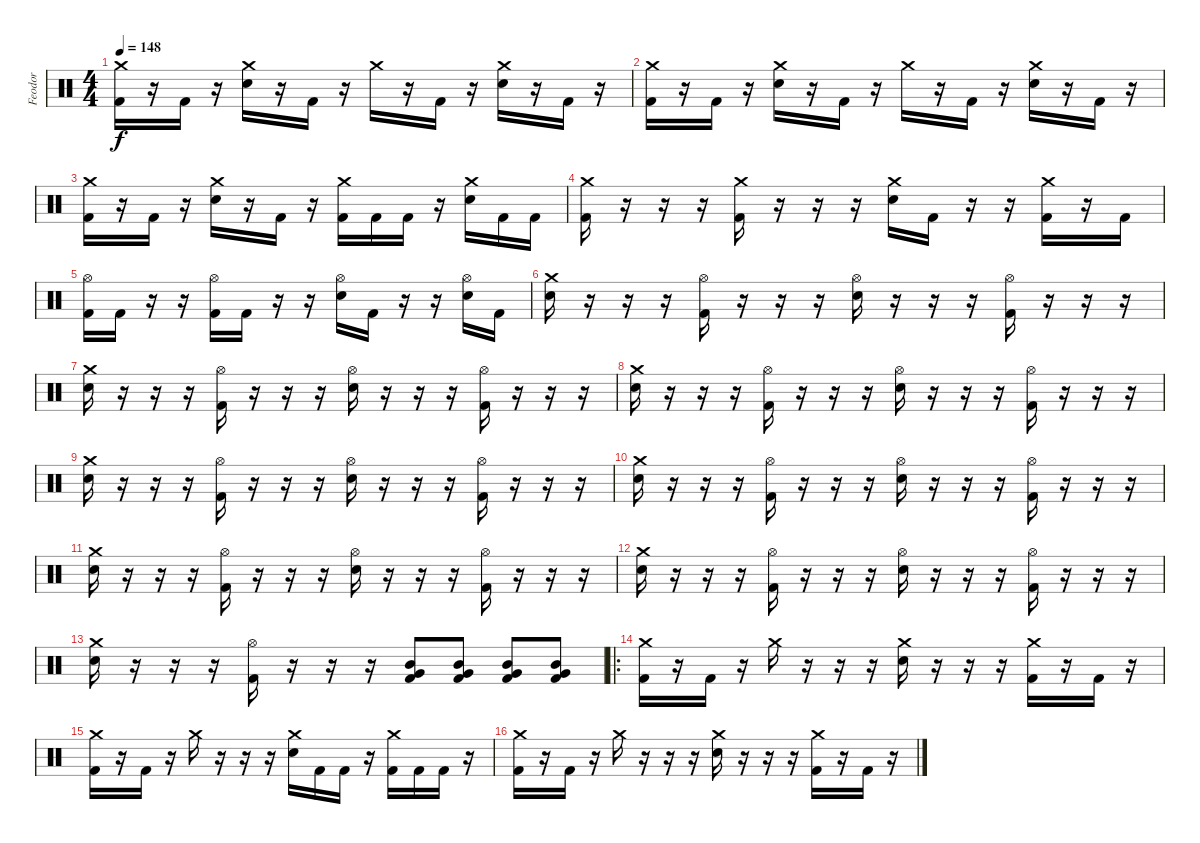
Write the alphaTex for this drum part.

\track ("Feodor" "Feodor") {instrument percussion}
\staff {score}
\articulation defaults
\ts (4 4)
\tempo 148
\clef neutral
\ks c
("Kick (hit) 2" "Crash medium (hit)").16{dy f} r.16 "Kick (hit) 2".16 r.16 ("Electric Snare (hit)" "Crash medium (hit)").16 r.16 "Kick (hit) 2".16 r.16 "Crash medium (hit)".16 r.16 "Kick (hit) 2".16 r.16 ("Electric Snare (hit)" "Crash medium (hit)").16 r.16 "Kick (hit) 2".16 r.16 |
("Kick (hit) 2" "Crash medium (hit)").16 r.16 "Kick (hit) 2".16 r.16 ("Electric Snare (hit)" "Crash medium (hit)").16 r.16 "Kick (hit) 2".16 r.16 "Crash medium (hit)".16 r.16 "Kick (hit) 2".16 r.16 ("Electric Snare (hit)" "Crash medium (hit)").16 r.16 "Kick (hit) 2".16 r.16 |
("Kick (hit) 2" "Crash medium (hit)").16 r.16 "Kick (hit) 2".16 r.16 ("Electric Snare (hit)" "Crash medium (hit)").16 r.16 "Kick (hit) 2".16 r.16 ("Kick (hit) 2" "Crash medium (hit)").16 "Kick (hit) 2".16 "Kick (hit) 2".16 r.16 ("Electric Snare (hit)" "Crash medium (hit)").16 "Kick (hit) 2".16 "Kick (hit) 2".16 |
("Kick (hit) 2" "Crash medium (hit)").16 r.16 r.16 r.16 ("Kick (hit) 2" "Crash medium (hit)").16 r.16 r.16 r.16 ("Electric Snare (hit)" "Crash medium (hit)").16 "Kick (hit) 2".16 r.16 r.16 ("Kick (hit) 2" "Crash medium (hit)").16 r.16 "Kick (hit) 2".16 |
("Kick (hit) 2" "Hi-Hat (open)").16 "Kick (hit) 2".16 r.16 r.16 ("Kick (hit) 2" "Hi-Hat (open)").16 "Kick (hit) 2".16 r.16 r.16 ("Electric Snare (hit)" "Hi-Hat (open)").16 "Kick (hit) 2".16 r.16 r.16 ("Electric Snare (hit)" "Hi-Hat (open)").16 "Kick (hit) 2".16 |
("Crash medium (hit)" "Electric Snare (hit)").16 r.16 r.16 r.16 ("Hi-Hat (open)" "Kick (hit) 2").16 r.16 r.16 r.16 ("Hi-Hat (open)" "Electric Snare (hit)").16 r.16 r.16 r.16 ("Hi-Hat (open)" "Kick (hit) 2").16 r.16 r.16 r.16 |
("Crash medium (hit)" "Electric Snare (hit)").16 r.16 r.16 r.16 ("Hi-Hat (open)" "Kick (hit) 2").16 r.16 r.16 r.16 ("Hi-Hat (open)" "Electric Snare (hit)").16 r.16 r.16 r.16 ("Hi-Hat (open)" "Kick (hit) 2").16 r.16 r.16 r.16 |
("Crash medium (hit)" "Electric Snare (hit)").16 r.16 r.16 r.16 ("Hi-Hat (open)" "Kick (hit) 2").16 r.16 r.16 r.16 ("Hi-Hat (open)" "Electric Snare (hit)").16 r.16 r.16 r.16 ("Hi-Hat (open)" "Kick (hit) 2").16 r.16 r.16 r.16 |
("Crash medium (hit)" "Electric Snare (hit)").16 r.16 r.16 r.16 ("Hi-Hat (open)" "Kick (hit) 2").16 r.16 r.16 r.16 ("Hi-Hat (open)" "Electric Snare (hit)").16 r.16 r.16 r.16 ("Hi-Hat (open)" "Kick (hit) 2").16 r.16 r.16 r.16 |
("Crash medium (hit)" "Electric Snare (hit)").16 r.16 r.16 r.16 ("Hi-Hat (open)" "Kick (hit) 2").16 r.16 r.16 r.16 ("Hi-Hat (open)" "Electric Snare (hit)").16 r.16 r.16 r.16 ("Hi-Hat (open)" "Kick (hit) 2").16 r.16 r.16 r.16 |
("Crash medium (hit)" "Electric Snare (hit)").16 r.16 r.16 r.16 ("Hi-Hat (open)" "Kick (hit) 2").16 r.16 r.16 r.16 ("Hi-Hat (open)" "Electric Snare (hit)").16 r.16 r.16 r.16 ("Hi-Hat (open)" "Kick (hit) 2").16 r.16 r.16 r.16 |
("Crash medium (hit)" "Electric Snare (hit)").16 r.16 r.16 r.16 ("Hi-Hat (open)" "Kick (hit) 2").16 r.16 r.16 r.16 ("Hi-Hat (open)" "Electric Snare (hit)").16 r.16 r.16 r.16 ("Hi-Hat (open)" "Kick (hit) 2").16 r.16 r.16 r.16 |
("Crash medium (hit)" "Electric Snare (hit)").16 r.16 r.16 r.16 ("Hi-Hat (open)" "Kick (hit) 2").16 r.16 r.16 r.16 ("Mid Tom (hit)" "Very Low Tom (hit)" "Kick (hit) 2").8 ("Mid Tom (hit)" "Very Low Tom (hit)" "Kick (hit) 2").8 ("Mid Tom (hit)" "Very Low Tom (hit)" "Kick (hit) 2").8 ("Mid Tom (hit)" "Very Low Tom (hit)" "Kick (hit) 2").8 |
\ro
("Crash medium (hit)" "Kick (hit) 2").16 r.16 "Kick (hit) 2".16 r.16 "Crash medium (hit)".16 r.16 r.16 r.16 ("Electric Snare (hit)" "Crash medium (hit)").16 r.16 r.16 r.16 ("Kick (hit) 2" "Crash medium (hit)").16 r.16 "Kick (hit) 2".16 r.16 |
("Crash medium (hit)" "Kick (hit) 2").16 r.16 "Kick (hit) 2".16 r.16 "Crash medium (hit)".16 r.16 r.16 r.16 ("Electric Snare (hit)" "Crash medium (hit)").16 "Kick (hit) 2".16 "Kick (hit) 2".16 r.16 ("Kick (hit) 2" "Crash medium (hit)").16 "Kick (hit) 2".16 "Kick (hit) 2".16 r.16 |
("Crash medium (hit)" "Kick (hit) 2").16 r.16 "Kick (hit) 2".16 r.16 "Crash medium (hit)".16 r.16 r.16 r.16 ("Electric Snare (hit)" "Crash medium (hit)").16 r.16 r.16 r.16 ("Kick (hit) 2" "Crash medium (hit)").16 r.16 "Kick (hit) 2".16 r.16
